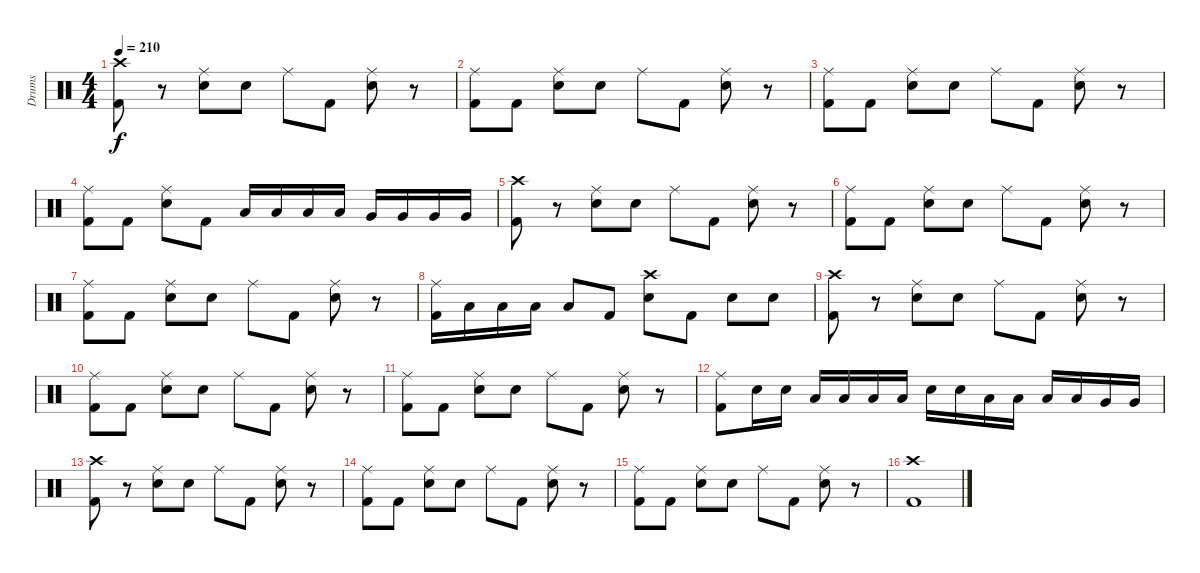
\track ("Drums" "Drums") {instrument percussion}
\staff {score}
\articulation defaults
\ts (4 4)
\tempo 210
\clef neutral
\ks c
("Crash high (hit)" "Kick (hit) 2").8{dy f} r.8 ("Ride (middle)" "Electric Snare (hit)").8 "Electric Snare (hit)".8 "Ride (middle)".8 "Kick (hit) 2".8 ("Ride (middle)" "Electric Snare (hit)").8 r.8 |
("Ride (middle)" "Kick (hit) 2").8 "Kick (hit) 2".8 ("Ride (middle)" "Electric Snare (hit)").8 "Electric Snare (hit)".8 "Ride (middle)".8 "Kick (hit) 2".8 ("Ride (middle)" "Electric Snare (hit)").8 r.8 |
("Ride (middle)" "Kick (hit) 2").8 "Kick (hit) 2".8 ("Ride (middle)" "Electric Snare (hit)").8 "Electric Snare (hit)".8 "Ride (middle)".8 "Kick (hit) 2".8 ("Ride (middle)" "Electric Snare (hit)").8 r.8 |
("Ride (middle)" "Kick (hit) 2").8 "Kick (hit) 2".8 ("Ride (middle)" "Electric Snare (hit)").8 "Kick (hit) 2".8 "Low Tom (hit)".16 "Low Tom (hit)".16 "Low Tom (hit)".16 "Low Tom (hit)".16 "Very Low Tom (hit)".16 "Very Low Tom (hit)".16 "Very Low Tom (hit)".16 "Very Low Tom (hit)".16 |
("Crash high (hit)" "Kick (hit) 2").8 r.8 ("Ride (middle)" "Electric Snare (hit)").8 "Electric Snare (hit)".8 "Ride (middle)".8 "Kick (hit) 2".8 ("Ride (middle)" "Electric Snare (hit)").8 r.8 |
("Ride (middle)" "Kick (hit) 2").8 "Kick (hit) 2".8 ("Ride (middle)" "Electric Snare (hit)").8 "Electric Snare (hit)".8 "Ride (middle)".8 "Kick (hit) 2".8 ("Ride (middle)" "Electric Snare (hit)").8 r.8 |
("Ride (middle)" "Kick (hit) 2").8 "Kick (hit) 2".8 ("Ride (middle)" "Electric Snare (hit)").8 "Electric Snare (hit)".8 "Ride (middle)".8 "Kick (hit) 2".8 ("Ride (middle)" "Electric Snare (hit)").8 r.8 |
("Ride (middle)" "Kick (hit) 2").16 "Low Tom (hit)".16 "Low Tom (hit)".16 "Low Tom (hit)".16 "Low Tom (hit)".8 "Kick (hit) 2".8 ("Crash high (hit)" "Electric Snare (hit)").8 "Kick (hit) 2".8 "Electric Snare (hit)".8 "Electric Snare (hit)".8 |
("Crash high (hit)" "Kick (hit) 2").8 r.8 ("Ride (middle)" "Electric Snare (hit)").8 "Electric Snare (hit)".8 "Ride (middle)".8 "Kick (hit) 2".8 ("Ride (middle)" "Electric Snare (hit)").8 r.8 |
("Ride (middle)" "Kick (hit) 2").8 "Kick (hit) 2".8 ("Ride (middle)" "Electric Snare (hit)").8 "Electric Snare (hit)".8 "Ride (middle)".8 "Kick (hit) 2".8 ("Ride (middle)" "Electric Snare (hit)").8 r.8 |
("Ride (middle)" "Kick (hit) 2").8 "Kick (hit) 2".8 ("Ride (middle)" "Electric Snare (hit)").8 "Electric Snare (hit)".8 "Ride (middle)".8 "Kick (hit) 2".8 ("Ride (middle)" "Electric Snare (hit)").8 r.8 |
("Ride (middle)" "Kick (hit) 2").8 "Electric Snare (hit)".16 "Electric Snare (hit)".16 "Low Tom (hit)".16 "Low Tom (hit)".16 "Low Tom (hit)".16 "Low Tom (hit)".16 "Electric Snare (hit)".16 "Electric Snare (hit)".16 "Low Tom (hit)".16 "Low Tom (hit)".16 "Low Tom (hit)".16 "Low Tom (hit)".16 "Very Low Tom (hit)".16 "Very Low Tom (hit)".16 |
("Crash high (hit)" "Kick (hit) 2").8 r.8 ("Ride (middle)" "Electric Snare (hit)").8 "Electric Snare (hit)".8 "Ride (middle)".8 "Kick (hit) 2".8 ("Ride (middle)" "Electric Snare (hit)").8 r.8 |
("Ride (middle)" "Kick (hit) 2").8 "Kick (hit) 2".8 ("Ride (middle)" "Electric Snare (hit)").8 "Electric Snare (hit)".8 "Ride (middle)".8 "Kick (hit) 2".8 ("Ride (middle)" "Electric Snare (hit)").8 r.8 |
("Ride (middle)" "Kick (hit) 2").8 "Kick (hit) 2".8 ("Ride (middle)" "Electric Snare (hit)").8 "Electric Snare (hit)".8 "Ride (middle)".8 "Kick (hit) 2".8 ("Ride (middle)" "Electric Snare (hit)").8 r.8 |
("Crash high (hit)" "Kick (hit) 2").1
